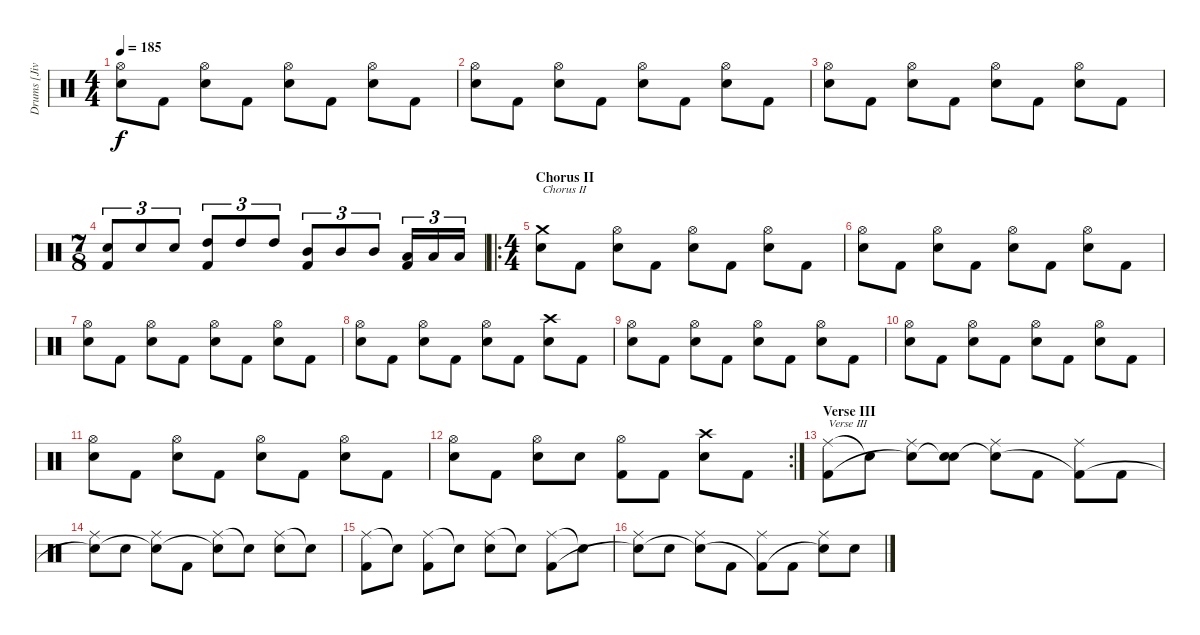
\track ("Drums [Jivarp]" "Drums [Jiv") {instrument percussion}
\staff {score}
\articulation defaults
\ts (4 4)
\tempo 185
\clef neutral
\ks c
("Hi-Hat (open)" "Electric Snare (hit)").8{dy f} "Kick (hit) 2".8 ("Hi-Hat (open)" "Electric Snare (hit)").8 "Kick (hit) 2".8 ("Hi-Hat (open)" "Electric Snare (hit)").8 "Kick (hit) 2".8 ("Hi-Hat (open)" "Electric Snare (hit)").8 "Kick (hit) 2".8 |
("Hi-Hat (open)" "Electric Snare (hit)").8 "Kick (hit) 2".8 ("Hi-Hat (open)" "Electric Snare (hit)").8 "Kick (hit) 2".8 ("Hi-Hat (open)" "Electric Snare (hit)").8 "Kick (hit) 2".8 ("Hi-Hat (open)" "Electric Snare (hit)").8 "Kick (hit) 2".8 |
("Hi-Hat (open)" "Electric Snare (hit)").8 "Kick (hit) 2".8 ("Hi-Hat (open)" "Electric Snare (hit)").8 "Kick (hit) 2".8 ("Hi-Hat (open)" "Electric Snare (hit)").8 "Kick (hit) 2".8 ("Hi-Hat (open)" "Electric Snare (hit)").8 "Kick (hit) 2".8 |
\ts (7 8)
("Electric Snare (hit)" "Kick (hit) 2").8{tu (3 2)} "Electric Snare (hit)".8{tu (3 2)} "Electric Snare (hit)".8{tu (3 2)} ("High Tom (hit)" "Kick (hit) 2").8{tu (3 2)} "High Tom (hit)".8{tu (3 2)} "High Tom (hit)".8{tu (3 2)} ("Mid Tom (hit)" "Kick (hit) 2").8{tu (3 2)} "Mid Tom (hit)".8{tu (3 2)} "Mid Tom (hit)".8{tu (3 2)} ("Low Tom (hit)" "Kick (hit) 2").16{tu (3 2)} "Low Tom (hit)".16{tu (3 2)} "Low Tom (hit)".16{tu (3 2)} |
\ro
\ts (4 4)
\section ("" "Chorus II")
("Crash medium (hit)" "Electric Snare (hit)").8{txt "Chorus II"} "Kick (hit) 2".8 ("Hi-Hat (open)" "Electric Snare (hit)").8 "Kick (hit) 2".8 ("Hi-Hat (open)" "Electric Snare (hit)").8 "Kick (hit) 2".8 ("Hi-Hat (open)" "Electric Snare (hit)").8 "Kick (hit) 2".8 |
("Hi-Hat (open)" "Electric Snare (hit)").8 "Kick (hit) 2".8 ("Hi-Hat (open)" "Electric Snare (hit)").8 "Kick (hit) 2".8 ("Hi-Hat (open)" "Electric Snare (hit)").8 "Kick (hit) 2".8 ("Hi-Hat (open)" "Electric Snare (hit)").8 "Kick (hit) 2".8 |
("Hi-Hat (open)" "Electric Snare (hit)").8 "Kick (hit) 2".8 ("Hi-Hat (open)" "Electric Snare (hit)").8 "Kick (hit) 2".8 ("Hi-Hat (open)" "Electric Snare (hit)").8 "Kick (hit) 2".8 ("Hi-Hat (open)" "Electric Snare (hit)").8 "Kick (hit) 2".8 |
("Hi-Hat (open)" "Electric Snare (hit)").8 "Kick (hit) 2".8 ("Hi-Hat (open)" "Electric Snare (hit)").8 "Kick (hit) 2".8 ("Hi-Hat (open)" "Electric Snare (hit)").8 "Kick (hit) 2".8 ("Crash high (hit)" "Electric Snare (hit)").8 "Kick (hit) 2".8 |
("Hi-Hat (open)" "Electric Snare (hit)").8 "Kick (hit) 2".8 ("Hi-Hat (open)" "Electric Snare (hit)").8 "Kick (hit) 2".8 ("Hi-Hat (open)" "Electric Snare (hit)").8 "Kick (hit) 2".8 ("Hi-Hat (open)" "Electric Snare (hit)").8 "Kick (hit) 2".8 |
("Hi-Hat (open)" "Electric Snare (hit)").8 "Kick (hit) 2".8 ("Hi-Hat (open)" "Electric Snare (hit)").8 "Kick (hit) 2".8 ("Hi-Hat (open)" "Electric Snare (hit)").8 "Kick (hit) 2".8 ("Hi-Hat (open)" "Electric Snare (hit)").8 "Kick (hit) 2".8 |
("Hi-Hat (open)" "Electric Snare (hit)").8 "Kick (hit) 2".8 ("Hi-Hat (open)" "Electric Snare (hit)").8 "Kick (hit) 2".8 ("Hi-Hat (open)" "Electric Snare (hit)").8 "Kick (hit) 2".8 ("Hi-Hat (open)" "Electric Snare (hit)").8 "Kick (hit) 2".8 |
\rc 2
("Hi-Hat (open)" "Electric Snare (hit)").8 "Kick (hit) 2".8 ("Hi-Hat (open)" "Electric Snare (hit)").8 "Electric Snare (hit)".8 ("Hi-Hat (open)" "Kick (hit) 2").8 "Kick (hit) 2".8 ("Crash high (hit)" "Electric Snare (hit)").8 "Kick (hit) 2".8 |
\section ("" "Verse III")
("Ride (middle)" "Kick (hit) 2").8{txt "Verse III"} "Snare (hit)"{t}.8 ("Ride (middle)" "Snare (hit)"{t}).8 ("Electric Snare (hit)" "Snare (hit)"{t}).8 ("Ride (middle)" "Snare (hit)"{t}).8 "Kick (hit) 2".8 ("Ride (middle)" "Kick (hit) 2"{t}).8 "Kick (hit) 2".8 |
("Ride (middle)" "Snare (hit)"{t}).8 "Electric Snare (hit)".8 ("Ride (middle)" "Snare (hit)"{t}).8 "Kick (hit) 2".8 ("Ride (middle)" "Snare (hit)"{t}).8 "Snare (hit)"{t}.8 ("Ride (middle)" "Electric Snare (hit)").8 "Snare (hit)"{t}.8 |
("Ride (middle)" "Kick (hit) 2").8 "Snare (hit)"{t}.8 ("Ride (middle)" "Kick (hit) 2").8 "Snare (hit)"{t}.8 ("Ride (middle)" "Electric Snare (hit)").8 "Snare (hit)"{t}.8 ("Ride (middle)" "Kick (hit) 2").8 "Snare (hit)"{t}.8 |
("Ride (middle)" "Snare (hit)"{t}).8 "Electric Snare (hit)".8 ("Ride (middle)" "Snare (hit)"{t}).8 "Kick (hit) 2".8 ("Ride (middle)" "Kick (hit) 2"{t}).8 "Kick (hit) 2".8 ("Ride (middle)" "Snare (hit)"{t}).8 "Electric Snare (hit)".8
